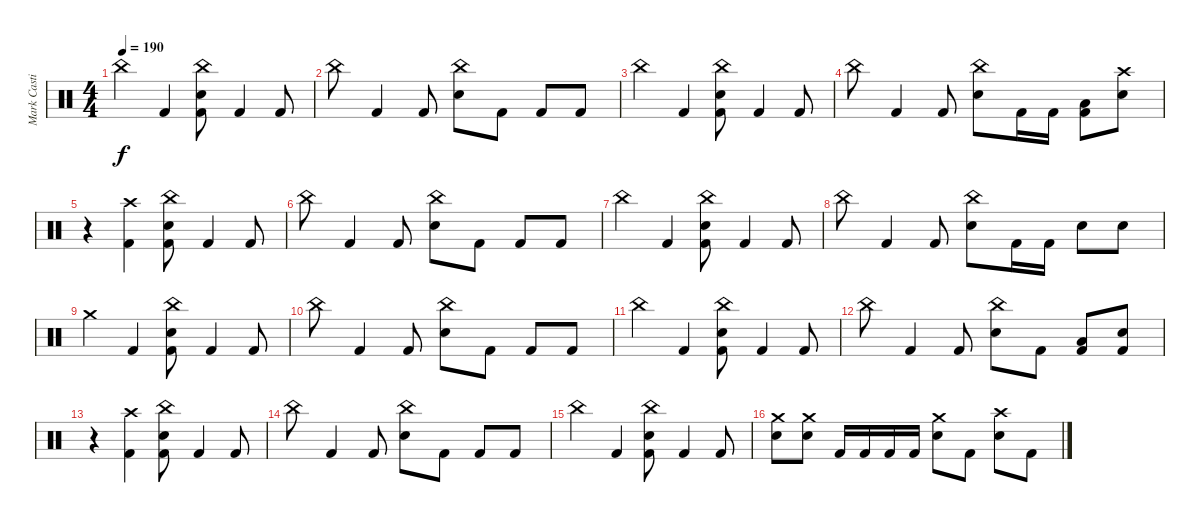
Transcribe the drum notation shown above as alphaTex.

\track ("Mark Castillo" "Mark Casti") {instrument percussion}
\staff {score}
\articulation defaults
\ts (4 4)
\tempo 190
\clef neutral
\ks c "China (hit)".4{dy f} "Kick (hit) 2".4
("China (hit)" "Electric Snare (hit)" "Kick (hit) 2").8 "Kick (hit) 2".4 "Kick (hit) 2".8 |
"China (hit)".8 "Kick (hit) 2".4 "Kick (hit) 2".8 ("China (hit)" "Electric Snare (hit)").8 "Kick (hit) 2".8 "Kick (hit) 2".8 "Kick (hit) 2".8 |
"China (hit)".4 "Kick (hit) 2".4 ("China (hit)" "Electric Snare (hit)" "Kick (hit) 2").8 "Kick (hit) 2".4 "Kick (hit) 2".8 |
"China (hit)".8 "Kick (hit) 2".4 "Kick (hit) 2".8 ("China (hit)" "Electric Snare (hit)").8 "Kick (hit) 2".16 "Kick (hit) 2".16 ("Low Tom (hit)" "Kick (hit) 2").8 ("Crash high (hit)" "Electric Snare (hit)").8 |
r.4{volume 0} ("Crash high (hit)" "Kick (hit) 2").4{volume 13} ("China (hit)" "Electric Snare (hit)" "Kick (hit) 2").8 "Kick (hit) 2".4 "Kick (hit) 2".8 |
"China (hit)".8 "Kick (hit) 2".4 "Kick (hit) 2".8 ("China (hit)" "Electric Snare (hit)").8 "Kick (hit) 2".8 "Kick (hit) 2".8 "Kick (hit) 2".8 |
"China (hit)".4 "Kick (hit) 2".4 ("China (hit)" "Electric Snare (hit)" "Kick (hit) 2").8 "Kick (hit) 2".4 "Kick (hit) 2".8 |
"China (hit)".8 "Kick (hit) 2".4 "Kick (hit) 2".8 ("China (hit)" "Electric Snare (hit)").8 "Kick (hit) 2".16 "Kick (hit) 2".16 "Electric Snare (hit)".8 "Electric Snare (hit)".8 |
"Crash medium (hit)".4 "Kick (hit) 2".4 ("China (hit)" "Electric Snare (hit)" "Kick (hit) 2").8 "Kick (hit) 2".4 "Kick (hit) 2".8 |
"China (hit)".8 "Kick (hit) 2".4 "Kick (hit) 2".8 ("China (hit)" "Electric Snare (hit)").8 "Kick (hit) 2".8 "Kick (hit) 2".8 "Kick (hit) 2".8 |
"China (hit)".4 "Kick (hit) 2".4 ("China (hit)" "Electric Snare (hit)" "Kick (hit) 2").8 "Kick (hit) 2".4 "Kick (hit) 2".8 |
"China (hit)".8 "Kick (hit) 2".4 "Kick (hit) 2".8 ("China (hit)" "Electric Snare (hit)").8 "Kick (hit) 2".8 ("Low Tom (hit)" "Kick (hit) 2").8 ("Electric Snare (hit)" "Kick (hit) 2").8 |
r.4{volume 0} ("Crash high (hit)" "Kick (hit) 2").4{volume 13} ("China (hit)" "Electric Snare (hit)" "Kick (hit) 2").8 "Kick (hit) 2".4 "Kick (hit) 2".8 |
"China (hit)".8 "Kick (hit) 2".4 "Kick (hit) 2".8 ("China (hit)" "Electric Snare (hit)").8 "Kick (hit) 2".8 "Kick (hit) 2".8 "Kick (hit) 2".8 |
"China (hit)".4 "Kick (hit) 2".4 ("China (hit)" "Electric Snare (hit)" "Kick (hit) 2").8 "Kick (hit) 2".4 "Kick (hit) 2".8 |
("Crash medium (hit)" "Electric Snare (hit)").8 ("Crash medium (hit)" "Electric Snare (hit)").8 "Kick (hit) 2".16 "Kick (hit) 2".16 "Kick (hit) 2".16 "Kick (hit) 2".16 ("Crash medium (hit)" "Electric Snare (hit)").8 "Kick (hit) 2".8 ("Crash high (hit)" "Electric Snare (hit)").8 "Kick (hit) 2".8
